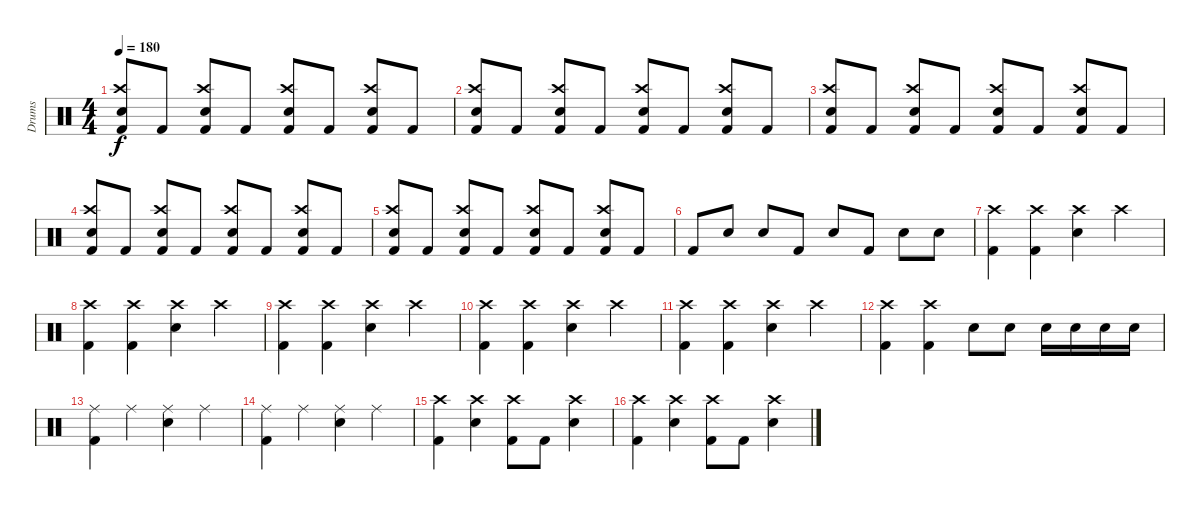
\track ("Drums" "Drums") {instrument percussion}
\staff {score}
\articulation defaults
\ts (4 4)
\tempo 180
\clef neutral
\ks c
("Kick (hit) 2" "Crash high (hit)" "Snare (hit) 2").8{dy f} "Kick (hit) 2".8 ("Kick (hit) 2" "Crash high (hit)" "Snare (hit) 2").8 "Kick (hit) 2".8 ("Kick (hit) 2" "Crash high (hit)" "Snare (hit) 2").8 "Kick (hit) 2".8 ("Kick (hit) 2" "Crash high (hit)" "Snare (hit) 2").8 "Kick (hit) 2".8 |
("Kick (hit) 2" "Crash high (hit)" "Snare (hit) 2").8 "Kick (hit) 2".8 ("Kick (hit) 2" "Crash high (hit)" "Snare (hit) 2").8 "Kick (hit) 2".8 ("Kick (hit) 2" "Crash high (hit)" "Snare (hit) 2").8 "Kick (hit) 2".8 ("Kick (hit) 2" "Crash high (hit)" "Snare (hit) 2").8 "Kick (hit) 2".8 |
("Kick (hit) 2" "Crash high (hit)" "Snare (hit) 2").8 "Kick (hit) 2".8 ("Kick (hit) 2" "Crash high (hit)" "Snare (hit) 2").8 "Kick (hit) 2".8 ("Kick (hit) 2" "Crash high (hit)" "Snare (hit) 2").8 "Kick (hit) 2".8 ("Kick (hit) 2" "Crash high (hit)" "Snare (hit) 2").8 "Kick (hit) 2".8 |
("Kick (hit) 2" "Crash high (hit)" "Snare (hit) 2").8 "Kick (hit) 2".8 ("Kick (hit) 2" "Crash high (hit)" "Snare (hit) 2").8 "Kick (hit) 2".8 ("Kick (hit) 2" "Crash high (hit)" "Snare (hit) 2").8 "Kick (hit) 2".8 ("Kick (hit) 2" "Crash high (hit)" "Snare (hit) 2").8 "Kick (hit) 2".8 |
("Kick (hit) 2" "Crash high (hit)" "Snare (hit) 2").8 "Kick (hit) 2".8 ("Kick (hit) 2" "Crash high (hit)" "Snare (hit) 2").8 "Kick (hit) 2".8 ("Kick (hit) 2" "Crash high (hit)" "Snare (hit) 2").8 "Kick (hit) 2".8 ("Kick (hit) 2" "Crash high (hit)" "Snare (hit) 2").8 "Kick (hit) 2".8 |
"Kick (hit) 2".8 "Snare (hit) 2".8 "Snare (hit) 2".8 "Kick (hit) 2".8 "Snare (hit) 2".8 "Kick (hit) 2".8 "Snare (hit) 2".8 "Snare (hit) 2".8 |
("Crash high (hit)" "Kick (hit) 2").4 ("Crash high (hit)" "Kick (hit) 2").4 ("Crash high (hit)" "Snare (hit) 2").4 "Crash high (hit)".4 |
("Crash high (hit)" "Kick (hit) 2").4 ("Crash high (hit)" "Kick (hit) 2").4 ("Crash high (hit)" "Snare (hit) 2").4 "Crash high (hit)".4 |
("Crash high (hit)" "Kick (hit) 2").4 ("Crash high (hit)" "Kick (hit) 2").4 ("Crash high (hit)" "Snare (hit) 2").4 "Crash high (hit)".4 |
("Crash high (hit)" "Kick (hit) 2").4 ("Crash high (hit)" "Kick (hit) 2").4 ("Crash high (hit)" "Snare (hit) 2").4 "Crash high (hit)".4 |
("Crash high (hit)" "Kick (hit) 2").4 ("Crash high (hit)" "Kick (hit) 2").4 ("Crash high (hit)" "Snare (hit) 2").4 "Crash high (hit)".4 |
("Crash high (hit)" "Kick (hit) 2").4 ("Crash high (hit)" "Kick (hit) 2").4 "Snare (hit) 2".8 "Snare (hit) 2".8 "Snare (hit) 2".16 "Snare (hit) 2".16 "Snare (hit) 2".16 "Snare (hit) 2".16 |
("Kick (hit) 2" "Ride (middle)").4 "Ride (middle)".4 ("Snare (hit) 2" "Ride (middle)").4 "Ride (middle)".4 |
("Kick (hit) 2" "Ride (middle)").4 "Ride (middle)".4 ("Snare (hit) 2" "Ride (middle)").4 "Ride (middle)".4 |
("Kick (hit) 2" "Crash high (hit)").4 ("Snare (hit) 2" "Crash high (hit)").4 ("Kick (hit) 2" "Crash high (hit)").8 "Kick (hit) 2".8 ("Snare (hit) 2" "Crash high (hit)").4 |
("Kick (hit) 2" "Crash high (hit)").4 ("Snare (hit) 2" "Crash high (hit)").4 ("Kick (hit) 2" "Crash high (hit)").8 "Kick (hit) 2".8 ("Snare (hit) 2" "Crash high (hit)").4
